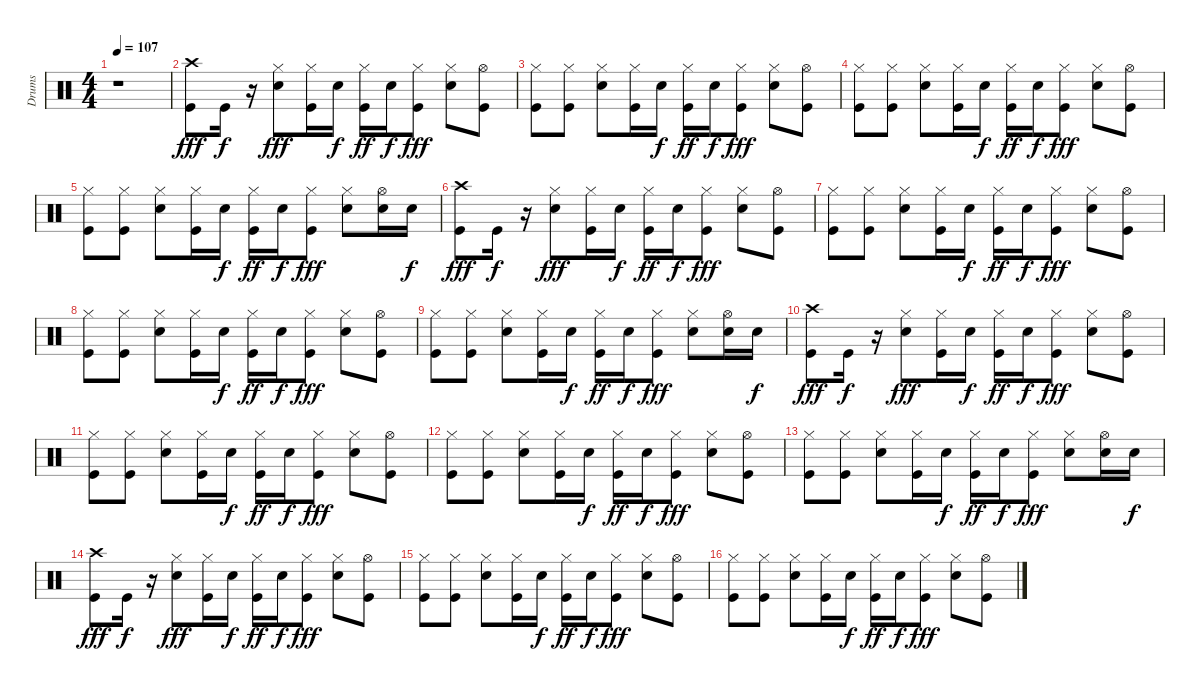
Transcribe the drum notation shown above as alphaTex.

\track ("Drums" "Drums") {instrument percussion}
\staff {score}
\articulation defaults
\ts (4 4)
\tempo 107
\clef neutral
\ks c
r.1{dy fff} |
("Kick (hit)" "Crash high (hit)").8 "Kick (hit)".16{dy f} r.16 ("Electric Snare (hit)" "Hi-Hat (closed)").8{dy fff} ("Kick (hit)" "Hi-Hat (closed)").16 "Electric Snare (hit)".16{dy f} ("Kick (hit)" "Hi-Hat (closed)").16{dy ff} "Electric Snare (hit)".16{dy f} ("Kick (hit)" "Hi-Hat (closed)").8{dy fff} ("Electric Snare (hit)" "Hi-Hat (closed)").8 ("Kick (hit)" "Hi-Hat (open)").8 |
("Kick (hit)" "Hi-Hat (closed)").8 ("Kick (hit)" "Hi-Hat (closed)").8 ("Electric Snare (hit)" "Hi-Hat (closed)").8 ("Kick (hit)" "Hi-Hat (closed)").16 "Electric Snare (hit)".16{dy f} ("Kick (hit)" "Hi-Hat (closed)").16{dy ff} "Electric Snare (hit)".16{dy f} ("Kick (hit)" "Hi-Hat (closed)").8{dy fff} ("Electric Snare (hit)" "Hi-Hat (closed)").8 ("Kick (hit)" "Hi-Hat (open)").8 |
("Kick (hit)" "Hi-Hat (closed)").8 ("Kick (hit)" "Hi-Hat (closed)").8 ("Electric Snare (hit)" "Hi-Hat (closed)").8 ("Kick (hit)" "Hi-Hat (closed)").16 "Electric Snare (hit)".16{dy f} ("Kick (hit)" "Hi-Hat (closed)").16{dy ff} "Electric Snare (hit)".16{dy f} ("Kick (hit)" "Hi-Hat (closed)").8{dy fff} ("Electric Snare (hit)" "Hi-Hat (closed)").8 ("Kick (hit)" "Hi-Hat (open)").8 |
("Kick (hit)" "Hi-Hat (closed)").8 ("Kick (hit)" "Hi-Hat (closed)").8 ("Electric Snare (hit)" "Hi-Hat (closed)").8 ("Kick (hit)" "Hi-Hat (closed)").16 "Electric Snare (hit)".16{dy f} ("Kick (hit)" "Hi-Hat (closed)").16{dy ff} "Electric Snare (hit)".16{dy f} ("Kick (hit)" "Hi-Hat (closed)").8{dy fff} ("Electric Snare (hit)" "Hi-Hat (closed)").8 ("Electric Snare (hit)" "Hi-Hat (open)").16 "Electric Snare (hit)".16{dy f} |
("Kick (hit)" "Crash high (hit)").8{dy fff} "Kick (hit)".16{dy f} r.16 ("Electric Snare (hit)" "Hi-Hat (closed)").8{dy fff} ("Kick (hit)" "Hi-Hat (closed)").16 "Electric Snare (hit)".16{dy f} ("Kick (hit)" "Hi-Hat (closed)").16{dy ff} "Electric Snare (hit)".16{dy f} ("Kick (hit)" "Hi-Hat (closed)").8{dy fff} ("Electric Snare (hit)" "Hi-Hat (closed)").8 ("Kick (hit)" "Hi-Hat (open)").8 |
("Kick (hit)" "Hi-Hat (closed)").8 ("Kick (hit)" "Hi-Hat (closed)").8 ("Electric Snare (hit)" "Hi-Hat (closed)").8 ("Kick (hit)" "Hi-Hat (closed)").16 "Electric Snare (hit)".16{dy f} ("Kick (hit)" "Hi-Hat (closed)").16{dy ff} "Electric Snare (hit)".16{dy f} ("Kick (hit)" "Hi-Hat (closed)").8{dy fff} ("Electric Snare (hit)" "Hi-Hat (closed)").8 ("Kick (hit)" "Hi-Hat (open)").8 |
("Kick (hit)" "Hi-Hat (closed)").8 ("Kick (hit)" "Hi-Hat (closed)").8 ("Electric Snare (hit)" "Hi-Hat (closed)").8 ("Kick (hit)" "Hi-Hat (closed)").16 "Electric Snare (hit)".16{dy f} ("Kick (hit)" "Hi-Hat (closed)").16{dy ff} "Electric Snare (hit)".16{dy f} ("Kick (hit)" "Hi-Hat (closed)").8{dy fff} ("Electric Snare (hit)" "Hi-Hat (closed)").8 ("Kick (hit)" "Hi-Hat (open)").8 |
("Kick (hit)" "Hi-Hat (closed)").8 ("Kick (hit)" "Hi-Hat (closed)").8 ("Electric Snare (hit)" "Hi-Hat (closed)").8 ("Kick (hit)" "Hi-Hat (closed)").16 "Electric Snare (hit)".16{dy f} ("Kick (hit)" "Hi-Hat (closed)").16{dy ff} "Electric Snare (hit)".16{dy f} ("Kick (hit)" "Hi-Hat (closed)").8{dy fff} ("Electric Snare (hit)" "Hi-Hat (closed)").8 ("Electric Snare (hit)" "Hi-Hat (open)").16 "Electric Snare (hit)".16{dy f} |
("Kick (hit)" "Crash high (hit)").8{dy fff} "Kick (hit)".16{dy f} r.16 ("Electric Snare (hit)" "Hi-Hat (closed)").8{dy fff} ("Kick (hit)" "Hi-Hat (closed)").16 "Electric Snare (hit)".16{dy f} ("Kick (hit)" "Hi-Hat (closed)").16{dy ff} "Electric Snare (hit)".16{dy f} ("Kick (hit)" "Hi-Hat (closed)").8{dy fff} ("Electric Snare (hit)" "Hi-Hat (closed)").8 ("Kick (hit)" "Hi-Hat (open)").8 |
("Kick (hit)" "Hi-Hat (closed)").8 ("Kick (hit)" "Hi-Hat (closed)").8 ("Electric Snare (hit)" "Hi-Hat (closed)").8 ("Kick (hit)" "Hi-Hat (closed)").16 "Electric Snare (hit)".16{dy f} ("Kick (hit)" "Hi-Hat (closed)").16{dy ff} "Electric Snare (hit)".16{dy f} ("Kick (hit)" "Hi-Hat (closed)").8{dy fff} ("Electric Snare (hit)" "Hi-Hat (closed)").8 ("Kick (hit)" "Hi-Hat (open)").8 |
("Kick (hit)" "Hi-Hat (closed)").8 ("Kick (hit)" "Hi-Hat (closed)").8 ("Electric Snare (hit)" "Hi-Hat (closed)").8 ("Kick (hit)" "Hi-Hat (closed)").16 "Electric Snare (hit)".16{dy f} ("Kick (hit)" "Hi-Hat (closed)").16{dy ff} "Electric Snare (hit)".16{dy f} ("Kick (hit)" "Hi-Hat (closed)").8{dy fff} ("Electric Snare (hit)" "Hi-Hat (closed)").8 ("Kick (hit)" "Hi-Hat (open)").8 |
("Kick (hit)" "Hi-Hat (closed)").8 ("Kick (hit)" "Hi-Hat (closed)").8 ("Electric Snare (hit)" "Hi-Hat (closed)").8 ("Kick (hit)" "Hi-Hat (closed)").16 "Electric Snare (hit)".16{dy f} ("Kick (hit)" "Hi-Hat (closed)").16{dy ff} "Electric Snare (hit)".16{dy f} ("Kick (hit)" "Hi-Hat (closed)").8{dy fff} ("Electric Snare (hit)" "Hi-Hat (closed)").8 ("Electric Snare (hit)" "Hi-Hat (open)").16 "Electric Snare (hit)".16{dy f} |
("Kick (hit)" "Crash high (hit)").8{dy fff} "Kick (hit)".16{dy f} r.16 ("Electric Snare (hit)" "Hi-Hat (closed)").8{dy fff} ("Kick (hit)" "Hi-Hat (closed)").16 "Electric Snare (hit)".16{dy f} ("Kick (hit)" "Hi-Hat (closed)").16{dy ff} "Electric Snare (hit)".16{dy f} ("Kick (hit)" "Hi-Hat (closed)").8{dy fff} ("Electric Snare (hit)" "Hi-Hat (closed)").8 ("Kick (hit)" "Hi-Hat (open)").8 |
("Kick (hit)" "Hi-Hat (closed)").8 ("Kick (hit)" "Hi-Hat (closed)").8 ("Electric Snare (hit)" "Hi-Hat (closed)").8 ("Kick (hit)" "Hi-Hat (closed)").16 "Electric Snare (hit)".16{dy f} ("Kick (hit)" "Hi-Hat (closed)").16{dy ff} "Electric Snare (hit)".16{dy f} ("Kick (hit)" "Hi-Hat (closed)").8{dy fff} ("Electric Snare (hit)" "Hi-Hat (closed)").8 ("Kick (hit)" "Hi-Hat (open)").8 |
("Kick (hit)" "Hi-Hat (closed)").8 ("Kick (hit)" "Hi-Hat (closed)").8 ("Electric Snare (hit)" "Hi-Hat (closed)").8 ("Kick (hit)" "Hi-Hat (closed)").16 "Electric Snare (hit)".16{dy f} ("Kick (hit)" "Hi-Hat (closed)").16{dy ff} "Electric Snare (hit)".16{dy f} ("Kick (hit)" "Hi-Hat (closed)").8{dy fff} ("Electric Snare (hit)" "Hi-Hat (closed)").8 ("Kick (hit)" "Hi-Hat (open)").8
